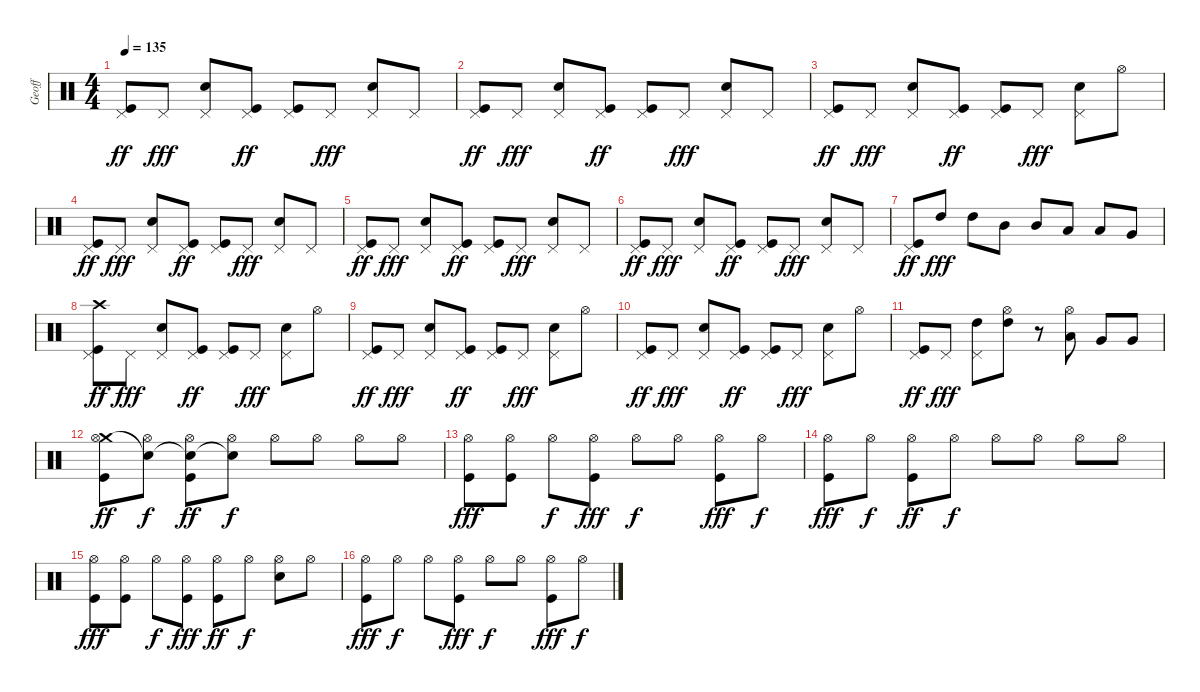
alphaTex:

\track ("Geoff" "Geoff") {instrument percussion}
\staff {score}
\articulation defaults
\ts (4 4)
\tempo 135
\clef neutral
\ks c
("Pedal Hi-Hat (hit)" "Kick (hit)").8{dy ff} "Pedal Hi-Hat (hit)".8{dy fff} ("Pedal Hi-Hat (hit)" "Electric Snare (hit)").8 ("Pedal Hi-Hat (hit)" "Kick (hit)").8{dy ff} ("Pedal Hi-Hat (hit)" "Kick (hit)").8 "Pedal Hi-Hat (hit)".8{dy fff} ("Pedal Hi-Hat (hit)" "Electric Snare (hit)").8 "Pedal Hi-Hat (hit)".8 |
("Pedal Hi-Hat (hit)" "Kick (hit)").8{dy ff} "Pedal Hi-Hat (hit)".8{dy fff} ("Pedal Hi-Hat (hit)" "Electric Snare (hit)").8 ("Pedal Hi-Hat (hit)" "Kick (hit)").8{dy ff} ("Pedal Hi-Hat (hit)" "Kick (hit)").8 "Pedal Hi-Hat (hit)".8{dy fff} ("Pedal Hi-Hat (hit)" "Electric Snare (hit)").8 "Pedal Hi-Hat (hit)".8 |
("Pedal Hi-Hat (hit)" "Kick (hit)").8{dy ff} "Pedal Hi-Hat (hit)".8{dy fff} ("Pedal Hi-Hat (hit)" "Electric Snare (hit)").8 ("Pedal Hi-Hat (hit)" "Kick (hit)").8{dy ff} ("Pedal Hi-Hat (hit)" "Kick (hit)").8 "Pedal Hi-Hat (hit)".8{dy fff} ("Pedal Hi-Hat (hit)" "Electric Snare (hit)").8 "Hi-Hat (open)".8 |
("Pedal Hi-Hat (hit)" "Kick (hit)").8{dy ff} "Pedal Hi-Hat (hit)".8{dy fff} ("Pedal Hi-Hat (hit)" "Electric Snare (hit)").8 ("Pedal Hi-Hat (hit)" "Kick (hit)").8{dy ff} ("Pedal Hi-Hat (hit)" "Kick (hit)").8 "Pedal Hi-Hat (hit)".8{dy fff} ("Pedal Hi-Hat (hit)" "Electric Snare (hit)").8 "Pedal Hi-Hat (hit)".8 |
("Pedal Hi-Hat (hit)" "Kick (hit)").8{dy ff} "Pedal Hi-Hat (hit)".8{dy fff} ("Pedal Hi-Hat (hit)" "Electric Snare (hit)").8 ("Pedal Hi-Hat (hit)" "Kick (hit)").8{dy ff} ("Pedal Hi-Hat (hit)" "Kick (hit)").8 "Pedal Hi-Hat (hit)".8{dy fff} ("Pedal Hi-Hat (hit)" "Electric Snare (hit)").8 "Pedal Hi-Hat (hit)".8 |
("Pedal Hi-Hat (hit)" "Kick (hit)").8{dy ff} "Pedal Hi-Hat (hit)".8{dy fff} ("Pedal Hi-Hat (hit)" "Electric Snare (hit)").8 ("Pedal Hi-Hat (hit)" "Kick (hit)").8{dy ff} ("Pedal Hi-Hat (hit)" "Kick (hit)").8 "Pedal Hi-Hat (hit)".8{dy fff} ("Pedal Hi-Hat (hit)" "Electric Snare (hit)").8 "Pedal Hi-Hat (hit)".8 |
("Pedal Hi-Hat (hit)" "Kick (hit)").8{dy ff} "High Tom (hit)".8{dy fff} "High Tom (hit)".8 "Mid Tom (hit)".8 "Mid Tom (hit)".8 "Low Tom (hit)".8 "Low Tom (hit)".8 "Very Low Tom (hit)".8 |
("Crash high (hit)" "Pedal Hi-Hat (hit)" "Kick (hit)").8{dy ff} "Pedal Hi-Hat (hit)".8{dy fff} ("Pedal Hi-Hat (hit)" "Electric Snare (hit)").8 ("Pedal Hi-Hat (hit)" "Kick (hit)").8{dy ff} ("Pedal Hi-Hat (hit)" "Kick (hit)").8 "Pedal Hi-Hat (hit)".8{dy fff} ("Pedal Hi-Hat (hit)" "Electric Snare (hit)").8 "Hi-Hat (open)".8 |
("Pedal Hi-Hat (hit)" "Kick (hit)").8{dy ff} "Pedal Hi-Hat (hit)".8{dy fff} ("Pedal Hi-Hat (hit)" "Electric Snare (hit)").8 ("Pedal Hi-Hat (hit)" "Kick (hit)").8{dy ff} ("Pedal Hi-Hat (hit)" "Kick (hit)").8 "Pedal Hi-Hat (hit)".8{dy fff} ("Pedal Hi-Hat (hit)" "Electric Snare (hit)").8 "Hi-Hat (open)".8 |
("Pedal Hi-Hat (hit)" "Kick (hit)").8{dy ff} "Pedal Hi-Hat (hit)".8{dy fff} ("Pedal Hi-Hat (hit)" "Electric Snare (hit)").8 ("Pedal Hi-Hat (hit)" "Kick (hit)").8{dy ff} ("Pedal Hi-Hat (hit)" "Kick (hit)").8 "Pedal Hi-Hat (hit)".8{dy fff} ("Pedal Hi-Hat (hit)" "Electric Snare (hit)").8 "Hi-Hat (open)".8 |
("Pedal Hi-Hat (hit)" "Kick (hit)").8{dy ff} "Pedal Hi-Hat (hit)".8{dy fff} ("Pedal Hi-Hat (hit)" "High Tom (hit)").8 ("Hi-Hat (open)" "High Tom (hit)").8 r.8 ("Hi-Hat (open)" "Low Tom (hit)").8 "Very Low Tom (hit)".8 "Very Low Tom (hit)".8 |
("Crash medium (hit)" "Hi-Hat (open)" "Kick (hit)").8{dy ff} ("Snare (hit)"{t} "Hi-Hat (open)").8{dy f} ("Snare (hit)"{t} "Hi-Hat (open)" "Kick (hit)").8{dy ff} ("Snare (hit)"{t} "Hi-Hat (open)").8{dy f} "Hi-Hat (open)".8 "Hi-Hat (open)".8 "Hi-Hat (open)".8 "Hi-Hat (open)".8 |
("Hi-Hat (open)" "Kick (hit)").8{dy fff} ("Hi-Hat (open)" "Kick (hit)").8 "Hi-Hat (open)".8{dy f} ("Hi-Hat (open)" "Kick (hit)").8{dy fff} "Hi-Hat (open)".8{dy f} "Hi-Hat (open)".8 ("Hi-Hat (open)" "Kick (hit)").8{dy fff} "Hi-Hat (open)".8{dy f} |
("Hi-Hat (open)" "Kick (hit)").8{dy fff} "Hi-Hat (open)".8{dy f} ("Hi-Hat (open)" "Kick (hit)").8{dy ff} "Hi-Hat (open)".8{dy f} "Hi-Hat (open)".8 "Hi-Hat (open)".8 "Hi-Hat (open)".8 "Hi-Hat (open)".8 |
("Hi-Hat (open)" "Kick (hit)").8{dy fff} ("Hi-Hat (open)" "Kick (hit)").8 "Hi-Hat (open)".8{dy f} ("Hi-Hat (open)" "Kick (hit)").8{dy fff} ("Hi-Hat (open)" "Kick (hit)").8{dy ff} "Hi-Hat (open)".8{dy f} ("Hi-Hat (open)" "Electric Snare (hit)").8 "Hi-Hat (open)".8 |
("Hi-Hat (open)" "Kick (hit)").8{dy fff} "Hi-Hat (open)".8{dy f} "Hi-Hat (open)".8 ("Hi-Hat (open)" "Kick (hit)").8{dy fff} "Hi-Hat (open)".8{dy f} "Hi-Hat (open)".8 ("Hi-Hat (open)" "Kick (hit)").8{dy fff} "Hi-Hat (open)".8{dy f}
